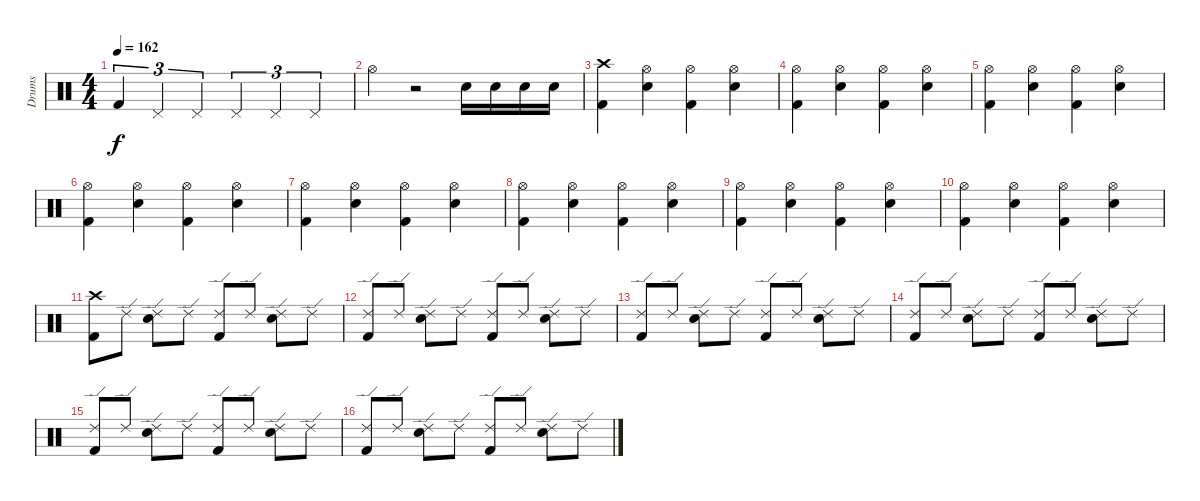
\track ("Drums" "Drums") {instrument percussion}
\staff {score}
\articulation defaults
\ts (4 4)
\tempo 162
\clef neutral
\ks c "Kick (hit) 2".4{tu (3 2) dy f} "Pedal Hi-Hat (hit)".4{tu (3 2)} "Pedal Hi-Hat (hit)".4{tu (3 2)} "Pedal Hi-Hat (hit)".4{tu (3 2)} "Pedal Hi-Hat (hit)".4{tu (3 2)} "Pedal Hi-Hat (hit)".4{tu (3 2)}
|
"Hi-Hat (open)".4 r.2 "Snare (hit) 2".16 "Snare (hit) 2".16 "Snare (hit) 2".16 "Snare (hit) 2".16 |
("Crash high (hit)" "Kick (hit) 2").4 ("Hi-Hat (open)" "Snare (hit) 2").4 ("Hi-Hat (open)" "Kick (hit) 2").4 ("Hi-Hat (open)" "Snare (hit) 2").4 |
("Hi-Hat (open)" "Kick (hit) 2").4 ("Hi-Hat (open)" "Snare (hit) 2").4 ("Hi-Hat (open)" "Kick (hit) 2").4 ("Hi-Hat (open)" "Snare (hit) 2").4 |
("Hi-Hat (open)" "Kick (hit) 2").4 ("Hi-Hat (open)" "Snare (hit) 2").4 ("Hi-Hat (open)" "Kick (hit) 2").4 ("Hi-Hat (open)" "Snare (hit) 2").4 |
("Hi-Hat (open)" "Kick (hit) 2").4 ("Hi-Hat (open)" "Snare (hit) 2").4 ("Hi-Hat (open)" "Kick (hit) 2").4 ("Hi-Hat (open)" "Snare (hit) 2").4 |
("Hi-Hat (open)" "Kick (hit) 2").4 ("Hi-Hat (open)" "Snare (hit) 2").4 ("Hi-Hat (open)" "Kick (hit) 2").4 ("Hi-Hat (open)" "Snare (hit) 2").4 |
("Hi-Hat (open)" "Kick (hit) 2").4 ("Hi-Hat (open)" "Snare (hit) 2").4 ("Hi-Hat (open)" "Kick (hit) 2").4 ("Hi-Hat (open)" "Snare (hit) 2").4 |
("Hi-Hat (open)" "Kick (hit) 2").4 ("Hi-Hat (open)" "Snare (hit) 2").4 ("Hi-Hat (open)" "Kick (hit) 2").4 ("Hi-Hat (open)" "Snare (hit) 2").4 |
("Hi-Hat (open)" "Kick (hit) 2").4 ("Hi-Hat (open)" "Snare (hit) 2").4 ("Hi-Hat (open)" "Kick (hit) 2").4 ("Hi-Hat (open)" "Snare (hit) 2").4 |
("Crash high (hit)" "Kick (hit) 2").8 "Ride (edge) 2".8 ("Ride (edge) 2" "Snare (hit) 2").8 "Ride (edge) 2".8 ("Ride (edge) 2" "Kick (hit) 2").8 "Ride (edge) 2".8 ("Ride (edge) 2" "Snare (hit) 2").8 "Ride (edge) 2".8 |
("Ride (edge) 2" "Kick (hit) 2").8 "Ride (edge) 2".8 ("Ride (edge) 2" "Snare (hit) 2").8 "Ride (edge) 2".8 ("Ride (edge) 2" "Kick (hit) 2").8 "Ride (edge) 2".8 ("Ride (edge) 2" "Snare (hit) 2").8 "Ride (edge) 2".8 |
("Ride (edge) 2" "Kick (hit) 2").8 "Ride (edge) 2".8 ("Ride (edge) 2" "Snare (hit) 2").8 "Ride (edge) 2".8 ("Ride (edge) 2" "Kick (hit) 2").8 "Ride (edge) 2".8 ("Ride (edge) 2" "Snare (hit) 2").8 "Ride (edge) 2".8 |
("Ride (edge) 2" "Kick (hit) 2").8 "Ride (edge) 2".8 ("Ride (edge) 2" "Snare (hit) 2").8 "Ride (edge) 2".8 ("Ride (edge) 2" "Kick (hit) 2").8 "Ride (edge) 2".8 ("Ride (edge) 2" "Snare (hit) 2").8 "Ride (edge) 2".8 |
("Ride (edge) 2" "Kick (hit) 2").8 "Ride (edge) 2".8 ("Ride (edge) 2" "Snare (hit) 2").8 "Ride (edge) 2".8 ("Ride (edge) 2" "Kick (hit) 2").8 "Ride (edge) 2".8 ("Ride (edge) 2" "Snare (hit) 2").8 "Ride (edge) 2".8 |
("Ride (edge) 2" "Kick (hit) 2").8 "Ride (edge) 2".8 ("Ride (edge) 2" "Snare (hit) 2").8 "Ride (edge) 2".8 ("Ride (edge) 2" "Kick (hit) 2").8 "Ride (edge) 2".8 ("Ride (edge) 2" "Snare (hit) 2").8 "Ride (edge) 2".8
